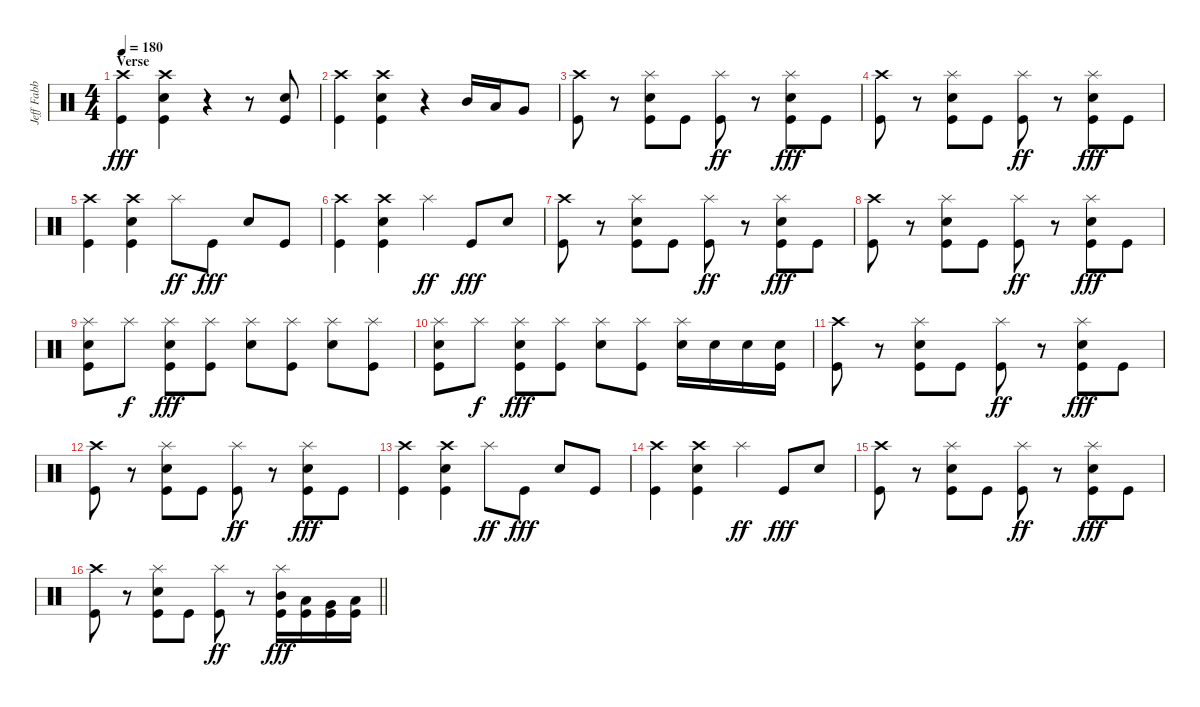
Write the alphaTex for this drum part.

\track ("Jeff Fabb (Drums)" "Jeff Fabb ") {instrument percussion}
\staff {score}
\articulation defaults
\ts (4 4)
\section ("" "Verse")
\tempo 180
\clef neutral
\ks c
("Crash high (hit)" "Kick (hit)").4{dy fff} ("Crash high (hit)" "Electric Snare (hit)" "Kick (hit)").4 r.4 r.8 ("Electric Snare (hit)" "Kick (hit)").8 |
("Crash high (hit)" "Kick (hit)").4 ("Crash high (hit)" "Electric Snare (hit)" "Kick (hit)").4 r.4 "Mid Tom (hit)".16 "Low Tom (hit)".16 "Very Low Tom (hit)".8 |
("Crash high (hit)" "Kick (hit)").8 r.8 ("Splash (hit)" "Electric Snare (hit)" "Kick (hit)").8 "Kick (hit)".8 ("Splash (hit)" "Kick (hit)").8{dy ff} r.8 ("Splash (hit)" "Electric Snare (hit)" "Kick (hit)").8{dy fff} "Kick (hit)".8 |
("Crash high (hit)" "Kick (hit)").8 r.8 ("Splash (hit)" "Electric Snare (hit)" "Kick (hit)").8 "Kick (hit)".8 ("Splash (hit)" "Kick (hit)").8{dy ff} r.8 ("Splash (hit)" "Electric Snare (hit)" "Kick (hit)").8{dy fff} "Kick (hit)".8 |
("Crash high (hit)" "Kick (hit)").4 ("Crash high (hit)" "Electric Snare (hit)" "Kick (hit)").4 "Splash (hit)".8{dy ff} "Kick (hit)".8{dy fff} "Electric Snare (hit)".8 "Kick (hit)".8 |
("Crash high (hit)" "Kick (hit)").4 ("Crash high (hit)" "Electric Snare (hit)" "Kick (hit)").4 "Splash (hit)".4{dy ff} "Kick (hit)".8{dy fff} "Electric Snare (hit)".8 |
("Crash high (hit)" "Kick (hit)").8 r.8 ("Splash (hit)" "Electric Snare (hit)" "Kick (hit)").8 "Kick (hit)".8 ("Splash (hit)" "Kick (hit)").8{dy ff} r.8 ("Splash (hit)" "Electric Snare (hit)" "Kick (hit)").8{dy fff} "Kick (hit)".8 |
("Crash high (hit)" "Kick (hit)").8 r.8 ("Splash (hit)" "Electric Snare (hit)" "Kick (hit)").8 "Kick (hit)".8 ("Splash (hit)" "Kick (hit)").8{dy ff} r.8 ("Splash (hit)" "Electric Snare (hit)" "Kick (hit)").8{dy fff} "Kick (hit)".8 |
("Splash (hit)" "Electric Snare (hit)" "Kick (hit)").8 "Splash (hit)".8{dy f} ("Splash (hit)" "Electric Snare (hit)" "Kick (hit)").8{dy fff} ("Splash (hit)" "Kick (hit)").8 ("Splash (hit)" "Electric Snare (hit)").8 ("Splash (hit)" "Kick (hit)").8 ("Splash (hit)" "Electric Snare (hit)").8 ("Splash (hit)" "Kick (hit)").8 |
("Splash (hit)" "Electric Snare (hit)" "Kick (hit)").8 "Splash (hit)".8{dy f} ("Splash (hit)" "Electric Snare (hit)" "Kick (hit)").8{dy fff} ("Splash (hit)" "Kick (hit)").8 ("Splash (hit)" "Electric Snare (hit)").8 ("Splash (hit)" "Kick (hit)").8 ("Splash (hit)" "Electric Snare (hit)").16 "Electric Snare (hit)".16 "Electric Snare (hit)".16 ("Electric Snare (hit)" "Kick (hit)").16 |
("Crash high (hit)" "Kick (hit)").8 r.8 ("Splash (hit)" "Electric Snare (hit)" "Kick (hit)").8 "Kick (hit)".8 ("Splash (hit)" "Kick (hit)").8{dy ff} r.8 ("Splash (hit)" "Electric Snare (hit)" "Kick (hit)").8{dy fff} "Kick (hit)".8 |
("Crash high (hit)" "Kick (hit)").8 r.8 ("Splash (hit)" "Electric Snare (hit)" "Kick (hit)").8 "Kick (hit)".8 ("Splash (hit)" "Kick (hit)").8{dy ff} r.8 ("Splash (hit)" "Electric Snare (hit)" "Kick (hit)").8{dy fff} "Kick (hit)".8 |
("Crash high (hit)" "Kick (hit)").4 ("Crash high (hit)" "Electric Snare (hit)" "Kick (hit)").4 "Splash (hit)".8{dy ff} "Kick (hit)".8{dy fff} "Electric Snare (hit)".8 "Kick (hit)".8 |
("Crash high (hit)" "Kick (hit)").4 ("Crash high (hit)" "Electric Snare (hit)" "Kick (hit)").4 "Splash (hit)".4{dy ff} "Kick (hit)".8{dy fff} "Electric Snare (hit)".8 |
("Crash high (hit)" "Kick (hit)").8 r.8 ("Splash (hit)" "Electric Snare (hit)" "Kick (hit)").8 "Kick (hit)".8 ("Splash (hit)" "Kick (hit)").8{dy ff} r.8 ("Splash (hit)" "Electric Snare (hit)" "Kick (hit)").8{dy fff} "Kick (hit)".8 |
\barLineRight lightlight
("Crash high (hit)" "Kick (hit)").8 r.8 ("Splash (hit)" "Electric Snare (hit)" "Kick (hit)").8 "Kick (hit)".8 ("Splash (hit)" "Kick (hit)").8{dy ff} r.8 ("Splash (hit)" "Mid Tom (hit)" "Kick (hit)").16{dy fff} ("Low Tom (hit)" "Kick (hit)").16 ("Very Low Tom (hit)" "Kick (hit)").16 ("Low Floor Tom (hit)" "Kick (hit)").16
